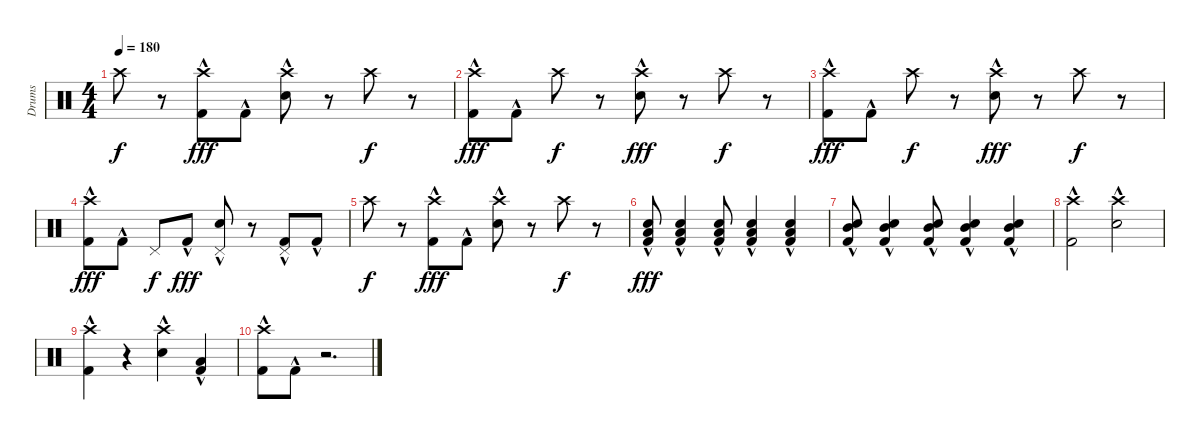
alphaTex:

\track ("Drums" "Drums") {instrument percussion}
\staff {score}
\articulation defaults
\ts (4 4)
\tempo 180
\clef neutral
\ks c "Crash high (hit)".8{dy f}
r.8 ("Crash high (hit)" "Kick (hit) 2"{hac}).8{dy fff} "Kick (hit) 2"{hac}.8 ("Crash high (hit)" "Snare (hit) 2"{hac}).8 r.8 "Crash high (hit)".8{dy f} r.8 |
("Crash high (hit)" "Kick (hit) 2"{hac}).8{dy fff} "Kick (hit) 2"{hac}.8 "Crash high (hit)".8{dy f} r.8 ("Crash high (hit)" "Snare (hit) 2"{hac}).8{dy fff} r.8 "Crash high (hit)".8{dy f} r.8 |
("Crash high (hit)" "Kick (hit) 2"{hac}).8{dy fff} "Kick (hit) 2"{hac}.8 "Crash high (hit)".8{dy f} r.8 ("Crash high (hit)" "Snare (hit) 2"{hac}).8{dy fff} r.8 "Crash high (hit)".8{dy f} r.8 |
("Crash high (hit)"{hac} "Kick (hit) 2"{hac}).8{dy fff} "Kick (hit) 2"{hac}.8 "Pedal Hi-Hat (hit)".8{dy f} "Kick (hit) 2"{hac}.8{dy fff} ("Pedal Hi-Hat (hit)" "Snare (hit) 2"{hac}).8 r.8 ("Pedal Hi-Hat (hit)" "Kick (hit) 2"{hac}).8 "Kick (hit) 2"{hac}.8 |
"Crash high (hit)".8{dy f} r.8 ("Crash high (hit)" "Kick (hit) 2"{hac}).8{dy fff} "Kick (hit) 2"{hac}.8 ("Crash high (hit)" "Snare (hit) 2"{hac}).8 r.8 "Crash high (hit)".8{dy f} r.8 |
("Kick (hit) 2"{hac} "Snare (hit) 2"{hac} "Low Tom (hit)"{hac}).8{dy fff} ("Kick (hit) 2"{hac} "Snare (hit) 2"{hac} "Low Tom (hit)"{hac}).4 ("Kick (hit) 2"{hac} "Snare (hit) 2"{hac} "Low Tom (hit)"{hac}).8 ("Kick (hit) 2"{hac} "Snare (hit) 2"{hac} "Low Tom (hit)"{hac}).4 ("Kick (hit) 2"{hac} "Snare (hit) 2"{hac} "Low Tom (hit)"{hac}).4 |
("Kick (hit) 2"{hac} "Snare (hit) 2"{hac} "Mid Tom (hit)"{hac}).8 ("Kick (hit) 2"{hac} "Snare (hit) 2"{hac} "Mid Tom (hit)"{hac}).4 ("Kick (hit) 2"{hac} "Snare (hit) 2"{hac} "Mid Tom (hit)"{hac}).8 ("Kick (hit) 2"{hac} "Snare (hit) 2"{hac} "Mid Tom (hit)"{hac}).4 ("Kick (hit) 2"{hac} "Snare (hit) 2"{hac} "Mid Tom (hit)"{hac}).4 |
("Crash high (hit)"{hac} "Kick (hit) 2"{hac}).2 ("Crash high (hit)"{hac} "Snare (hit) 2"{hac}).2 |
("Crash high (hit)"{hac} "Kick (hit) 2"{hac}).4 r.4 ("Crash high (hit)"{hac} "Snare (hit) 2"{hac}).4 ("Low Tom (hit)"{hac} "Kick (hit) 2"{hac}).4 |
("Crash high (hit)"{hac} "Kick (hit) 2"{hac}).8 "Kick (hit) 2"{hac}.8 r.2{d}
